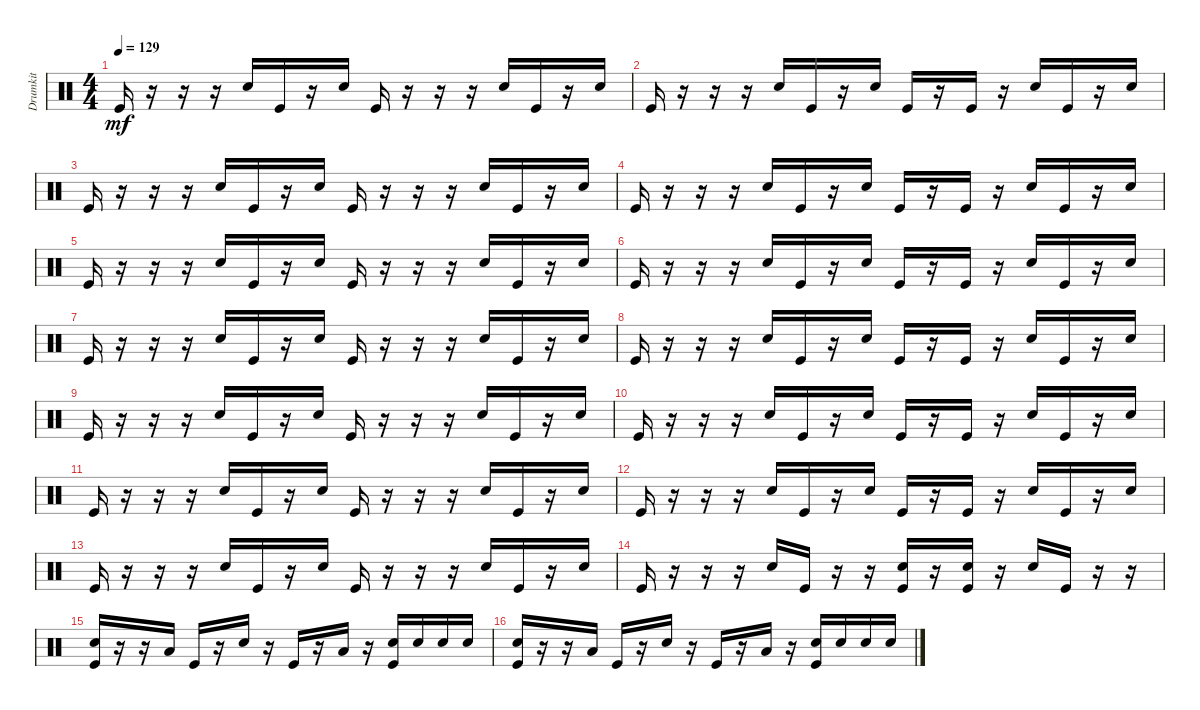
\track ("Drumkit" "Drumkit") {instrument percussion}
\staff {score}
\articulation defaults
\ts (4 4)
\tempo 129
\clef neutral
\ks c "Kick (hit)".16{dy mf}
r.16 r.16 r.16 "Snare (hit) 2".16 "Kick (hit)".16 r.16 "Snare (hit) 2".16 "Kick (hit)".16 r.16 r.16 r.16 "Snare (hit) 2".16 "Kick (hit)".16 r.16 "Snare (hit) 2".16 |
"Kick (hit)".16 r.16 r.16 r.16 "Snare (hit) 2".16 "Kick (hit)".16 r.16 "Snare (hit) 2".16 "Kick (hit)".16 r.16 "Kick (hit)".16 r.16 "Snare (hit) 2".16 "Kick (hit)".16 r.16 "Snare (hit) 2".16 |
"Kick (hit)".16 r.16 r.16 r.16 "Snare (hit) 2".16 "Kick (hit)".16 r.16 "Snare (hit) 2".16 "Kick (hit)".16 r.16 r.16 r.16 "Snare (hit) 2".16 "Kick (hit)".16 r.16 "Snare (hit) 2".16 |
"Kick (hit)".16 r.16 r.16 r.16 "Snare (hit) 2".16 "Kick (hit)".16 r.16 "Snare (hit) 2".16 "Kick (hit)".16 r.16 "Kick (hit)".16 r.16 "Snare (hit) 2".16 "Kick (hit)".16 r.16 "Snare (hit) 2".16 |
"Kick (hit)".16 r.16 r.16 r.16 "Snare (hit) 2".16 "Kick (hit)".16 r.16 "Snare (hit) 2".16 "Kick (hit)".16 r.16 r.16 r.16 "Snare (hit) 2".16 "Kick (hit)".16 r.16 "Snare (hit) 2".16 |
"Kick (hit)".16 r.16 r.16 r.16 "Snare (hit) 2".16 "Kick (hit)".16 r.16 "Snare (hit) 2".16 "Kick (hit)".16 r.16 "Kick (hit)".16 r.16 "Snare (hit) 2".16 "Kick (hit)".16 r.16 "Snare (hit) 2".16 |
"Kick (hit)".16 r.16 r.16 r.16 "Snare (hit) 2".16 "Kick (hit)".16 r.16 "Snare (hit) 2".16 "Kick (hit)".16 r.16 r.16 r.16 "Snare (hit) 2".16 "Kick (hit)".16 r.16 "Snare (hit) 2".16 |
"Kick (hit)".16 r.16 r.16 r.16 "Snare (hit) 2".16 "Kick (hit)".16 r.16 "Snare (hit) 2".16 "Kick (hit)".16 r.16 "Kick (hit)".16 r.16 "Snare (hit) 2".16 "Kick (hit)".16 r.16 "Snare (hit) 2".16 |
"Kick (hit)".16 r.16 r.16 r.16 "Snare (hit) 2".16 "Kick (hit)".16 r.16 "Snare (hit) 2".16 "Kick (hit)".16 r.16 r.16 r.16 "Snare (hit) 2".16 "Kick (hit)".16 r.16 "Snare (hit) 2".16 |
"Kick (hit)".16 r.16 r.16 r.16 "Snare (hit) 2".16 "Kick (hit)".16 r.16 "Snare (hit) 2".16 "Kick (hit)".16 r.16 "Kick (hit)".16 r.16 "Snare (hit) 2".16 "Kick (hit)".16 r.16 "Snare (hit) 2".16 |
"Kick (hit)".16 r.16 r.16 r.16 "Snare (hit) 2".16 "Kick (hit)".16 r.16 "Snare (hit) 2".16 "Kick (hit)".16 r.16 r.16 r.16 "Snare (hit) 2".16 "Kick (hit)".16 r.16 "Snare (hit) 2".16 |
"Kick (hit)".16 r.16 r.16 r.16 "Snare (hit) 2".16 "Kick (hit)".16 r.16 "Snare (hit) 2".16 "Kick (hit)".16 r.16 "Kick (hit)".16 r.16 "Snare (hit) 2".16 "Kick (hit)".16 r.16 "Snare (hit) 2".16 |
"Kick (hit)".16 r.16 r.16 r.16 "Snare (hit) 2".16 "Kick (hit)".16 r.16 "Snare (hit) 2".16 "Kick (hit)".16 r.16 r.16 r.16 "Snare (hit) 2".16 "Kick (hit)".16 r.16 "Snare (hit) 2".16 |
"Kick (hit)".16 r.16 r.16 r.16 "Snare (hit) 2".16 "Kick (hit)".16 r.16 r.16 ("Kick (hit)" "Snare (hit) 2").16 r.16 ("Kick (hit)" "Snare (hit) 2").16 r.16 "Snare (hit) 2".16 "Kick (hit)".16 r.16 r.16 |
("Kick (hit)" "Snare (hit) 2").16 r.16 r.16 "Low Tom (hit)".16 "Kick (hit)".16 r.16 "Snare (hit) 2".16 r.16 "Kick (hit)".16 r.16 "Low Floor Tom (hit)".16 r.16 ("Kick (hit)" "Snare (hit) 2").16 "Snare (hit) 2".16 "Snare (hit) 2".16 "Snare (hit) 2".16 |
("Kick (hit)" "Snare (hit) 2").16 r.16 r.16 "Low Tom (hit)".16 "Kick (hit)".16 r.16 "Snare (hit) 2".16 r.16 "Kick (hit)".16 r.16 "Low Floor Tom (hit)".16 r.16 ("Kick (hit)" "Snare (hit) 2").16 "Snare (hit) 2".16 "Snare (hit) 2".16 "Snare (hit) 2".16
